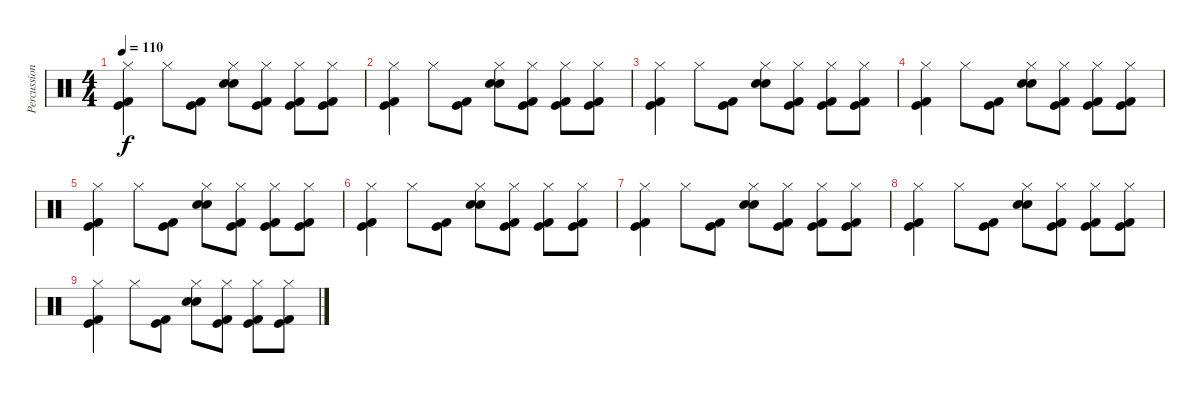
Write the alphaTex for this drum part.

\track ("Percussions" "Percussion") {instrument percussion}
\staff {score}
\articulation defaults
\ts (4 4)
\tempo 110
\clef neutral
\ks c
("Kick (hit) 2" "Kick (hit)" "Hi-Hat (closed)").4{dy f} "Hi-Hat (closed)".8 ("Kick (hit) 2" "Kick (hit)").8 ("Snare (hit) 2" "Hi-Hat (closed)" "Electric Snare (hit)").8 ("Kick (hit) 2" "Kick (hit)" "Hi-Hat (closed)").8 ("Kick (hit) 2" "Kick (hit)" "Hi-Hat (closed)").8 ("Kick (hit) 2" "Kick (hit)" "Hi-Hat (closed)").8 |
("Kick (hit) 2" "Kick (hit)" "Hi-Hat (closed)").4 "Hi-Hat (closed)".8 ("Kick (hit) 2" "Kick (hit)").8 ("Snare (hit) 2" "Hi-Hat (closed)" "Electric Snare (hit)").8 ("Kick (hit) 2" "Kick (hit)" "Hi-Hat (closed)").8 ("Kick (hit) 2" "Kick (hit)" "Hi-Hat (closed)").8 ("Kick (hit) 2" "Kick (hit)" "Hi-Hat (closed)").8 |
("Kick (hit) 2" "Kick (hit)" "Hi-Hat (closed)").4 "Hi-Hat (closed)".8 ("Kick (hit) 2" "Kick (hit)").8 ("Snare (hit) 2" "Hi-Hat (closed)" "Electric Snare (hit)").8 ("Kick (hit) 2" "Kick (hit)" "Hi-Hat (closed)").8 ("Kick (hit) 2" "Kick (hit)" "Hi-Hat (closed)").8 ("Kick (hit) 2" "Kick (hit)" "Hi-Hat (closed)").8 |
("Kick (hit) 2" "Kick (hit)" "Hi-Hat (closed)").4 "Hi-Hat (closed)".8 ("Kick (hit) 2" "Kick (hit)").8 ("Snare (hit) 2" "Hi-Hat (closed)" "Electric Snare (hit)").8 ("Kick (hit) 2" "Kick (hit)" "Hi-Hat (closed)").8 ("Kick (hit) 2" "Kick (hit)" "Hi-Hat (closed)").8 ("Kick (hit) 2" "Kick (hit)" "Hi-Hat (closed)").8 |
("Kick (hit) 2" "Kick (hit)" "Hi-Hat (closed)").4 "Hi-Hat (closed)".8 ("Kick (hit) 2" "Kick (hit)").8 ("Snare (hit) 2" "Hi-Hat (closed)" "Electric Snare (hit)").8 ("Kick (hit) 2" "Kick (hit)" "Hi-Hat (closed)").8 ("Kick (hit) 2" "Kick (hit)" "Hi-Hat (closed)").8 ("Kick (hit) 2" "Kick (hit)" "Hi-Hat (closed)").8 |
("Kick (hit) 2" "Kick (hit)" "Hi-Hat (closed)").4 "Hi-Hat (closed)".8 ("Kick (hit) 2" "Kick (hit)").8 ("Snare (hit) 2" "Hi-Hat (closed)" "Electric Snare (hit)").8 ("Kick (hit) 2" "Kick (hit)" "Hi-Hat (closed)").8 ("Kick (hit) 2" "Kick (hit)" "Hi-Hat (closed)").8 ("Kick (hit) 2" "Kick (hit)" "Hi-Hat (closed)").8 |
("Kick (hit) 2" "Kick (hit)" "Hi-Hat (closed)").4 "Hi-Hat (closed)".8 ("Kick (hit) 2" "Kick (hit)").8 ("Snare (hit) 2" "Hi-Hat (closed)" "Electric Snare (hit)").8 ("Kick (hit) 2" "Kick (hit)" "Hi-Hat (closed)").8 ("Kick (hit) 2" "Kick (hit)" "Hi-Hat (closed)").8 ("Kick (hit) 2" "Kick (hit)" "Hi-Hat (closed)").8 |
("Kick (hit) 2" "Kick (hit)" "Hi-Hat (closed)").4 "Hi-Hat (closed)".8 ("Kick (hit) 2" "Kick (hit)").8 ("Snare (hit) 2" "Hi-Hat (closed)" "Electric Snare (hit)").8 ("Kick (hit) 2" "Kick (hit)" "Hi-Hat (closed)").8 ("Kick (hit) 2" "Kick (hit)" "Hi-Hat (closed)").8 ("Kick (hit) 2" "Kick (hit)" "Hi-Hat (closed)").8 |
("Kick (hit) 2" "Kick (hit)" "Hi-Hat (closed)").4 "Hi-Hat (closed)".8 ("Kick (hit) 2" "Kick (hit)").8 ("Snare (hit) 2" "Hi-Hat (closed)" "Electric Snare (hit)").8 ("Kick (hit) 2" "Kick (hit)" "Hi-Hat (closed)").8 ("Kick (hit) 2" "Kick (hit)" "Hi-Hat (closed)").8 ("Kick (hit) 2" "Kick (hit)" "Hi-Hat (closed)").8
